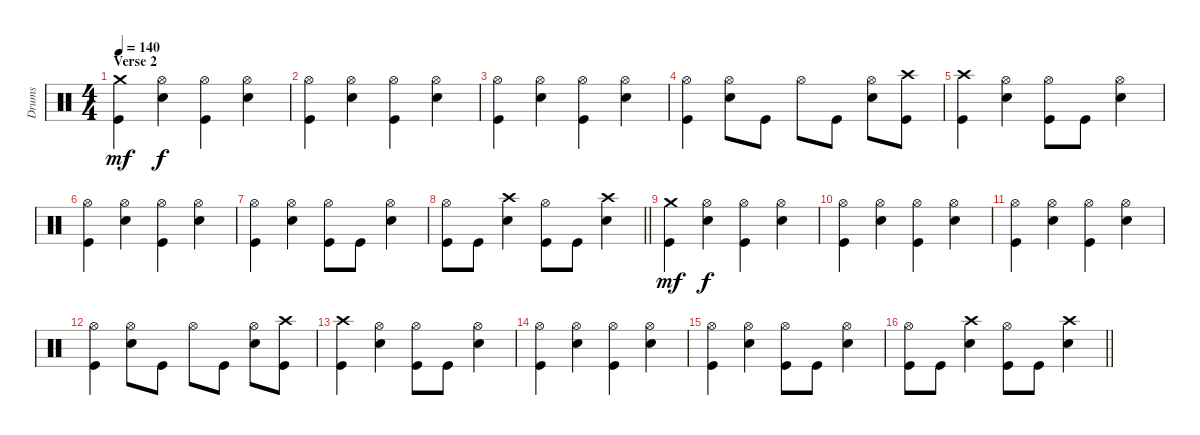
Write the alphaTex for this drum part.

\track ("Drums" "Drums") {instrument percussion}
\staff {score}
\articulation defaults
\ts (4 4)
\section ("" "Verse 2")
\tempo 140
\clef neutral
\ks c
("Kick (hit)" "Crash medium (hit)").4{dy mf} ("Snare (hit) 2" "Hi-Hat (open)").4{dy f} ("Kick (hit)" "Hi-Hat (open)").4 ("Snare (hit) 2" "Hi-Hat (open)").4 |
("Kick (hit)" "Hi-Hat (open)").4 ("Snare (hit) 2" "Hi-Hat (open)").4 ("Kick (hit)" "Hi-Hat (open)").4 ("Snare (hit) 2" "Hi-Hat (open)").4 |
("Kick (hit)" "Hi-Hat (open)").4 ("Snare (hit) 2" "Hi-Hat (open)").4 ("Kick (hit)" "Hi-Hat (open)").4 ("Snare (hit) 2" "Hi-Hat (open)").4 |
("Kick (hit)" "Hi-Hat (open)").4 ("Snare (hit) 2" "Hi-Hat (open)").8 "Kick (hit)".8 "Hi-Hat (open)".8 "Kick (hit)".8 ("Snare (hit) 2" "Hi-Hat (open)").8 ("Kick (hit)" "Crash high (hit)").8 |
("Kick (hit)" "Crash high (hit)").4 ("Snare (hit) 2" "Hi-Hat (open)").4 ("Kick (hit)" "Hi-Hat (open)").8 "Kick (hit)".8 ("Snare (hit) 2" "Hi-Hat (open)").4 |
("Kick (hit)" "Hi-Hat (open)").4 ("Snare (hit) 2" "Hi-Hat (open)").4 ("Kick (hit)" "Hi-Hat (open)").4 ("Snare (hit) 2" "Hi-Hat (open)").4 |
("Kick (hit)" "Hi-Hat (open)").4 ("Snare (hit) 2" "Hi-Hat (open)").4 ("Kick (hit)" "Hi-Hat (open)").8 "Kick (hit)".8 ("Snare (hit) 2" "Hi-Hat (open)").4 |
\barLineRight lightlight
("Kick (hit)" "Hi-Hat (open)").8 "Kick (hit)".8 ("Snare (hit) 2" "Crash high (hit)").4 ("Kick (hit)" "Hi-Hat (open)").8 "Kick (hit)".8 ("Snare (hit) 2" "Crash high (hit)").4 |
("Kick (hit)" "Crash medium (hit)").4{dy mf} ("Snare (hit) 2" "Hi-Hat (open)").4{dy f} ("Kick (hit)" "Hi-Hat (open)").4 ("Snare (hit) 2" "Hi-Hat (open)").4 |
("Kick (hit)" "Hi-Hat (open)").4 ("Snare (hit) 2" "Hi-Hat (open)").4 ("Kick (hit)" "Hi-Hat (open)").4 ("Snare (hit) 2" "Hi-Hat (open)").4 |
("Kick (hit)" "Hi-Hat (open)").4 ("Snare (hit) 2" "Hi-Hat (open)").4 ("Kick (hit)" "Hi-Hat (open)").4 ("Snare (hit) 2" "Hi-Hat (open)").4 |
("Kick (hit)" "Hi-Hat (open)").4 ("Snare (hit) 2" "Hi-Hat (open)").8 "Kick (hit)".8 "Hi-Hat (open)".8 "Kick (hit)".8 ("Snare (hit) 2" "Hi-Hat (open)").8 ("Kick (hit)" "Crash high (hit)").8 |
("Kick (hit)" "Crash high (hit)").4 ("Snare (hit) 2" "Hi-Hat (open)").4 ("Kick (hit)" "Hi-Hat (open)").8 "Kick (hit)".8 ("Snare (hit) 2" "Hi-Hat (open)").4 |
("Kick (hit)" "Hi-Hat (open)").4 ("Snare (hit) 2" "Hi-Hat (open)").4 ("Kick (hit)" "Hi-Hat (open)").4 ("Snare (hit) 2" "Hi-Hat (open)").4 |
("Kick (hit)" "Hi-Hat (open)").4 ("Snare (hit) 2" "Hi-Hat (open)").4 ("Kick (hit)" "Hi-Hat (open)").8 "Kick (hit)".8 ("Snare (hit) 2" "Hi-Hat (open)").4 |
\barLineRight lightlight
("Kick (hit)" "Hi-Hat (open)").8 "Kick (hit)".8 ("Snare (hit) 2" "Crash high (hit)").4 ("Kick (hit)" "Hi-Hat (open)").8 "Kick (hit)".8 ("Snare (hit) 2" "Crash high (hit)").4
